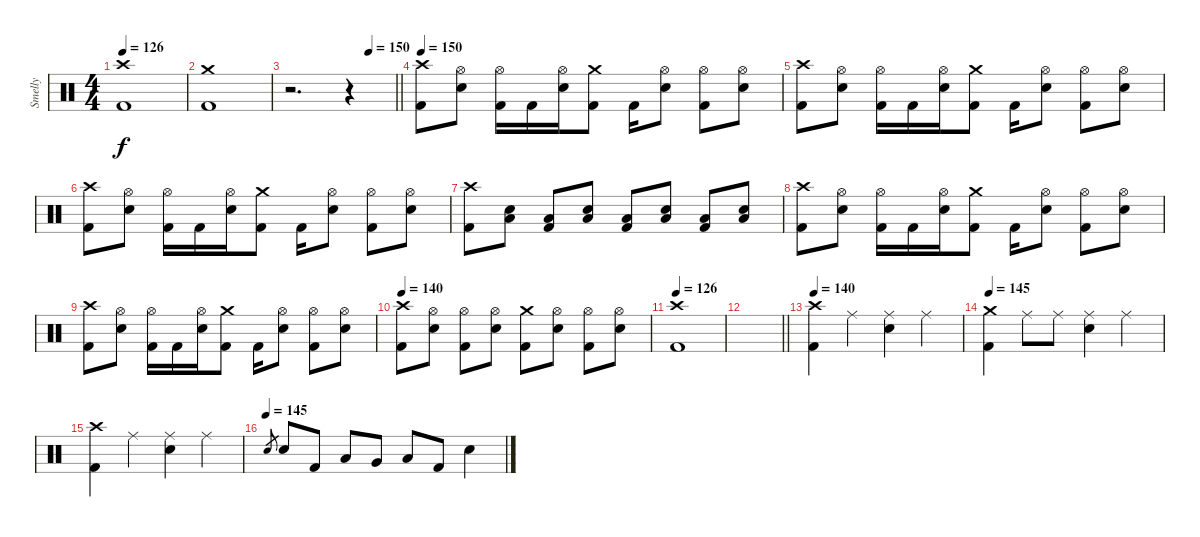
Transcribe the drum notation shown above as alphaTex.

\track ("Smelly" "Smelly") {instrument percussion}
\staff {score}
\articulation defaults
\ts (4 4)
\tempo 126
\clef neutral
\ks c
("Crash high (hit)" "Kick (hit) 2").1{dy f} |
("Crash medium (hit)" "Kick (hit) 2").1 |
\tempo (150 0.75)
\barLineRight lightlight
r.2{d} r.4 |
\section ("" "")
\tempo 150
("Crash high (hit)" "Kick (hit) 2").8 ("Hi-Hat (open)" "Electric Snare (hit)").8 ("Hi-Hat (open)" "Kick (hit) 2").16 "Kick (hit) 2".16 ("Hi-Hat (open)" "Electric Snare (hit)").16 ("Crash medium (hit)" "Kick (hit) 2").8 "Kick (hit) 2".16 ("Hi-Hat (open)" "Electric Snare (hit)").8 ("Hi-Hat (open)" "Kick (hit) 2").8 ("Hi-Hat (open)" "Electric Snare (hit)").8 |
("Crash high (hit)" "Kick (hit) 2").8 ("Hi-Hat (open)" "Electric Snare (hit)").8 ("Hi-Hat (open)" "Kick (hit) 2").16 "Kick (hit) 2".16 ("Hi-Hat (open)" "Electric Snare (hit)").16 ("Crash medium (hit)" "Kick (hit) 2").8 "Kick (hit) 2".16 ("Hi-Hat (open)" "Electric Snare (hit)").8 ("Hi-Hat (open)" "Kick (hit) 2").8 ("Hi-Hat (open)" "Electric Snare (hit)").8 |
("Crash high (hit)" "Kick (hit) 2").8 ("Hi-Hat (open)" "Electric Snare (hit)").8 ("Hi-Hat (open)" "Kick (hit) 2").16 "Kick (hit) 2".16 ("Hi-Hat (open)" "Electric Snare (hit)").16 ("Crash medium (hit)" "Kick (hit) 2").8 "Kick (hit) 2".16 ("Hi-Hat (open)" "Electric Snare (hit)").8 ("Hi-Hat (open)" "Kick (hit) 2").8 ("Hi-Hat (open)" "Electric Snare (hit)").8 |
("Crash high (hit)" "Kick (hit) 2").8 ("Electric Snare (hit)" "Low Floor Tom (hit)").8 ("Low Floor Tom (hit)" "Kick (hit) 2").8 ("Electric Snare (hit)" "Low Floor Tom (hit)").8 ("Low Floor Tom (hit)" "Kick (hit) 2").8 ("Electric Snare (hit)" "Low Floor Tom (hit)").8 ("Low Floor Tom (hit)" "Kick (hit) 2").8 ("Electric Snare (hit)" "Low Floor Tom (hit)").8 |
("Crash high (hit)" "Kick (hit) 2").8 ("Hi-Hat (open)" "Electric Snare (hit)").8 ("Hi-Hat (open)" "Kick (hit) 2").16 "Kick (hit) 2".16 ("Hi-Hat (open)" "Electric Snare (hit)").16 ("Crash medium (hit)" "Kick (hit) 2").8 "Kick (hit) 2".16 ("Hi-Hat (open)" "Electric Snare (hit)").8 ("Hi-Hat (open)" "Kick (hit) 2").8 ("Hi-Hat (open)" "Electric Snare (hit)").8 |
("Crash high (hit)" "Kick (hit) 2").8 ("Hi-Hat (open)" "Electric Snare (hit)").8 ("Hi-Hat (open)" "Kick (hit) 2").16 "Kick (hit) 2".16 ("Hi-Hat (open)" "Electric Snare (hit)").16 ("Crash medium (hit)" "Kick (hit) 2").8 "Kick (hit) 2".16 ("Hi-Hat (open)" "Electric Snare (hit)").8 ("Hi-Hat (open)" "Kick (hit) 2").8 ("Hi-Hat (open)" "Electric Snare (hit)").8 |
\tempo 140
("Crash high (hit)" "Kick (hit) 2").8 ("Hi-Hat (open)" "Electric Snare (hit)").8 ("Hi-Hat (open)" "Kick (hit) 2").8 ("Hi-Hat (open)" "Electric Snare (hit)").8 ("Crash medium (hit)" "Kick (hit) 2").8 ("Hi-Hat (open)" "Electric Snare (hit)").8 ("Hi-Hat (open)" "Kick (hit) 2").8 ("Hi-Hat (open)" "Electric Snare (hit)").8 |
\tempo 126
("Crash high (hit)" "Kick (hit) 2").1 |
\barLineRight lightlight
|
\section ("" "")
\tempo 140
("Crash high (hit)" "Kick (hit) 2").4 "Ride (middle)".4 ("Ride (middle)" "Electric Snare (hit)").4 "Ride (middle)".4 |
\tempo 145
("Crash medium (hit)" "Kick (hit) 2").4 "Ride (middle)".8 "Ride (middle)".8 ("Ride (middle)" "Electric Snare (hit)").4 "Ride (middle)".4 |
("Crash high (hit)" "Kick (hit) 2").4 "Ride (middle)".4 ("Ride (middle)" "Electric Snare (hit)").4 "Ride (middle)".4 |
\tempo (145)
"Electric Snare (hit)".8{gr} "Electric Snare (hit)".8 "Kick (hit) 2".8 "Low Tom (hit)".8 "Very Low Tom (hit)".8 "Low Floor Tom (hit)".8 "Kick (hit) 2".8 "Electric Snare (hit)".4
